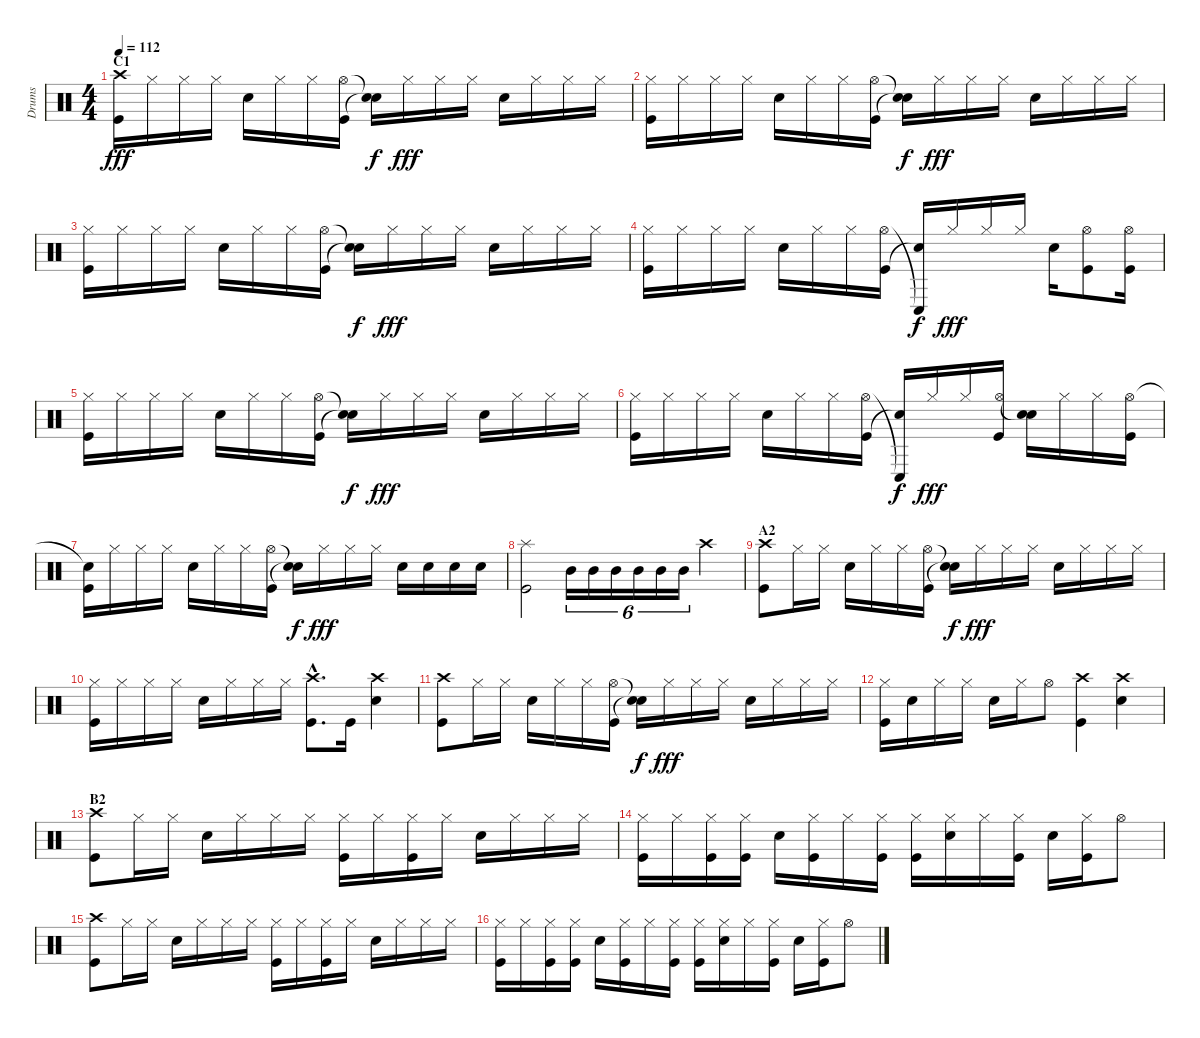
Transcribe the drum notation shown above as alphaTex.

\track ("Drums" "Drums") {instrument percussion}
\staff {score}
\articulation defaults
\ts (4 4)
\section ("" "C1")
\tempo 112
\clef neutral
\ks c
("Crash high (hit)" "Kick (hit)").16{dy fff} "Hi-Hat (closed)".16 "Hi-Hat (closed)".16 "Hi-Hat (closed)".16 "Snare (hit) 2".16 "Hi-Hat (closed)".16 "Hi-Hat (closed)".16 ("Hi-Hat (open)" "Kick (hit)").16 ("Snare (hit)"{t} "Snare (hit)"{t}).16{dy f} "Hi-Hat (closed)".16{dy fff} "Hi-Hat (closed)".16 "Hi-Hat (closed)".16 "Snare (hit) 2".16 "Hi-Hat (closed)".16 "Hi-Hat (closed)".16 "Hi-Hat (closed)".16 |
("Hi-Hat (closed)" "Kick (hit)").16 "Hi-Hat (closed)".16 "Hi-Hat (closed)".16 "Hi-Hat (closed)".16 "Snare (hit) 2".16 "Hi-Hat (closed)".16 "Hi-Hat (closed)".16 ("Hi-Hat (open)" "Kick (hit)").16 ("Snare (hit)"{t} "Snare (hit)"{t}).16{dy f} "Hi-Hat (closed)".16{dy fff} "Hi-Hat (closed)".16 "Hi-Hat (closed)".16 "Snare (hit) 2".16 "Hi-Hat (closed)".16 "Hi-Hat (closed)".16 "Hi-Hat (closed)".16 |
("Hi-Hat (closed)" "Kick (hit)").16 "Hi-Hat (closed)".16 "Hi-Hat (closed)".16 "Hi-Hat (closed)".16 "Snare (hit) 2".16 "Hi-Hat (closed)".16 "Hi-Hat (closed)".16 ("Hi-Hat (open)" "Kick (hit)").16 ("Snare (hit)"{t} "Snare (hit)"{t}).16{dy f} "Hi-Hat (closed)".16{dy fff} "Hi-Hat (closed)".16 "Hi-Hat (closed)".16 "Snare (hit) 2".16 "Hi-Hat (closed)".16 "Hi-Hat (closed)".16 "Hi-Hat (closed)".16 |
("Hi-Hat (closed)" "Kick (hit)").16 "Hi-Hat (closed)".16 "Hi-Hat (closed)".16 "Hi-Hat (closed)".16 "Snare (hit) 2".16 "Hi-Hat (closed)".16 "Hi-Hat (closed)".16 ("Hi-Hat (open)" "Kick (hit)").16 ("Conga low (hit)"{t} "Snare (hit)"{t}).16{dy f} "Hi-Hat (closed)".16{dy fff} "Hi-Hat (closed)".16 "Hi-Hat (closed)".16 "Snare (hit) 2".16 ("Hi-Hat (open)" "Kick (hit)").8 ("Hi-Hat (open)" "Kick (hit)").16 |
("Hi-Hat (closed)" "Kick (hit)").16 "Hi-Hat (closed)".16 "Hi-Hat (closed)".16 "Hi-Hat (closed)".16 "Snare (hit) 2".16 "Hi-Hat (closed)".16 "Hi-Hat (closed)".16 ("Hi-Hat (open)" "Kick (hit)").16 ("Snare (hit)"{t} "Snare (hit)"{t}).16{dy f} "Hi-Hat (closed)".16{dy fff} "Hi-Hat (closed)".16 "Hi-Hat (closed)".16 "Snare (hit) 2".16 "Hi-Hat (closed)".16 "Hi-Hat (closed)".16 "Hi-Hat (closed)".16 |
("Hi-Hat (closed)" "Kick (hit)").16 "Hi-Hat (closed)".16 "Hi-Hat (closed)".16 "Hi-Hat (closed)".16 "Snare (hit) 2".16 "Hi-Hat (closed)".16 "Hi-Hat (closed)".16 ("Hi-Hat (open)" "Kick (hit)").16 ("Conga low (hit)"{t} "Snare (hit)"{t}).16{dy f} "Hi-Hat (closed)".16{dy fff} "Hi-Hat (closed)".16 ("Hi-Hat (open)" "Kick (hit)").16 ("Snare (hit)"{t} "Snare (hit) 2").16 "Hi-Hat (closed)".16 "Hi-Hat (closed)".16 ("Hi-Hat (open)" "Kick (hit)").16 |
("Snare (hit)"{t} "Kick (hit)").16 "Hi-Hat (closed)".16 "Hi-Hat (closed)".16 "Hi-Hat (closed)".16 "Snare (hit) 2".16 "Hi-Hat (closed)".16 "Hi-Hat (closed)".16 ("Hi-Hat (open)" "Kick (hit)").16 ("Snare (hit)"{t} "Snare (hit)"{t}).16{dy f} "Hi-Hat (closed)".16{dy fff} "Hi-Hat (closed)".16 "Hi-Hat (closed)".16 "Snare (hit) 2".16 "Snare (hit) 2".16 "Snare (hit) 2".16 "Snare (hit) 2".16 |
("Splash (hit)" "Kick (hit)").2 "Mid Tom (hit)".16{tu (6 4)} "Mid Tom (hit)".16{tu (6 4)} "Mid Tom (hit)".16{tu (6 4)} "Mid Tom (hit)".16{tu (6 4)} "Mid Tom (hit)".16{tu (6 4)} "Mid Tom (hit)".16{tu (6 4)} "Crash high (hit)".4 |
\section ("" "A2")
("Crash high (hit)" "Kick (hit)").8 "Hi-Hat (closed)".16 "Hi-Hat (closed)".16 "Snare (hit) 2".16 "Hi-Hat (closed)".16 "Hi-Hat (closed)".16 ("Hi-Hat (open)" "Kick (hit)").16 ("Snare (hit)"{t} "Snare (hit)"{t}).16{dy f} "Hi-Hat (closed)".16{dy fff} "Hi-Hat (closed)".16 "Hi-Hat (closed)".16 "Snare (hit) 2".16 "Hi-Hat (closed)".16 "Hi-Hat (closed)".16 "Hi-Hat (closed)".16 |
("Hi-Hat (closed)" "Kick (hit)").16 "Hi-Hat (closed)".16 "Hi-Hat (closed)".16 "Hi-Hat (closed)".16 "Snare (hit) 2".16 "Hi-Hat (closed)".16 "Hi-Hat (closed)".16 "Hi-Hat (closed)".16 ("Crash high (hit)"{hac} "Kick (hit)"{hac}).8{d} "Kick (hit)".16 ("Crash high (hit)" "Snare (hit) 2").4 |
("Crash high (hit)" "Kick (hit)").8 "Hi-Hat (closed)".16 "Hi-Hat (closed)".16 "Snare (hit) 2".16 "Hi-Hat (closed)".16 "Hi-Hat (closed)".16 ("Hi-Hat (open)" "Kick (hit)").16 ("Snare (hit)"{t} "Snare (hit)"{t}).16{dy f} "Hi-Hat (closed)".16{dy fff} "Hi-Hat (closed)".16 "Hi-Hat (closed)".16 "Snare (hit) 2".16 "Hi-Hat (closed)".16 "Hi-Hat (closed)".16 "Hi-Hat (closed)".16 |
("Hi-Hat (closed)" "Kick (hit)").16 "Snare (hit) 2".16 "Hi-Hat (closed)".16 "Hi-Hat (closed)".16 "Snare (hit) 2".16 "Hi-Hat (closed)".16 "Hi-Hat (open)".8 ("Crash high (hit)" "Kick (hit)").4 ("Crash high (hit)" "Snare (hit) 2").4 |
\section ("" "B2")
("Crash high (hit)" "Kick (hit)").8 "Hi-Hat (closed)".16 "Hi-Hat (closed)".16 "Snare (hit) 2".16 "Hi-Hat (closed)".16 "Hi-Hat (closed)".16 "Hi-Hat (closed)".16 ("Hi-Hat (closed)" "Kick (hit)").16 "Hi-Hat (closed)".16 ("Hi-Hat (closed)" "Kick (hit)").16 "Hi-Hat (closed)".16 "Snare (hit) 2".16 "Hi-Hat (closed)".16 "Hi-Hat (closed)".16 "Hi-Hat (closed)".16 |
("Hi-Hat (closed)" "Kick (hit)").16 "Hi-Hat (closed)".16 ("Hi-Hat (closed)" "Kick (hit)").16 ("Hi-Hat (closed)" "Kick (hit)").16 "Snare (hit) 2".16 ("Hi-Hat (closed)" "Kick (hit)").16 "Hi-Hat (closed)".16 ("Hi-Hat (closed)" "Kick (hit)").16 ("Hi-Hat (closed)" "Kick (hit)").16 ("Hi-Hat (closed)" "Snare (hit) 2").16 "Hi-Hat (closed)".16 ("Hi-Hat (closed)" "Kick (hit)").16 "Snare (hit) 2".16 ("Hi-Hat (closed)" "Kick (hit)").16 "Hi-Hat (open)".8 |
("Crash high (hit)" "Kick (hit)").8 "Hi-Hat (closed)".16 "Hi-Hat (closed)".16 "Snare (hit) 2".16 "Hi-Hat (closed)".16 "Hi-Hat (closed)".16 "Hi-Hat (closed)".16 ("Hi-Hat (closed)" "Kick (hit)").16 "Hi-Hat (closed)".16 ("Hi-Hat (closed)" "Kick (hit)").16 "Hi-Hat (closed)".16 "Snare (hit) 2".16 "Hi-Hat (closed)".16 "Hi-Hat (closed)".16 "Hi-Hat (closed)".16 |
("Hi-Hat (closed)" "Kick (hit)").16 "Hi-Hat (closed)".16 ("Hi-Hat (closed)" "Kick (hit)").16 ("Hi-Hat (closed)" "Kick (hit)").16 "Snare (hit) 2".16 ("Hi-Hat (closed)" "Kick (hit)").16 "Hi-Hat (closed)".16 ("Hi-Hat (closed)" "Kick (hit)").16 ("Hi-Hat (closed)" "Kick (hit)").16 ("Hi-Hat (closed)" "Snare (hit) 2").16 "Hi-Hat (closed)".16 ("Hi-Hat (closed)" "Kick (hit)").16 "Snare (hit) 2".16 ("Hi-Hat (closed)" "Kick (hit)").16 "Hi-Hat (open)".8
